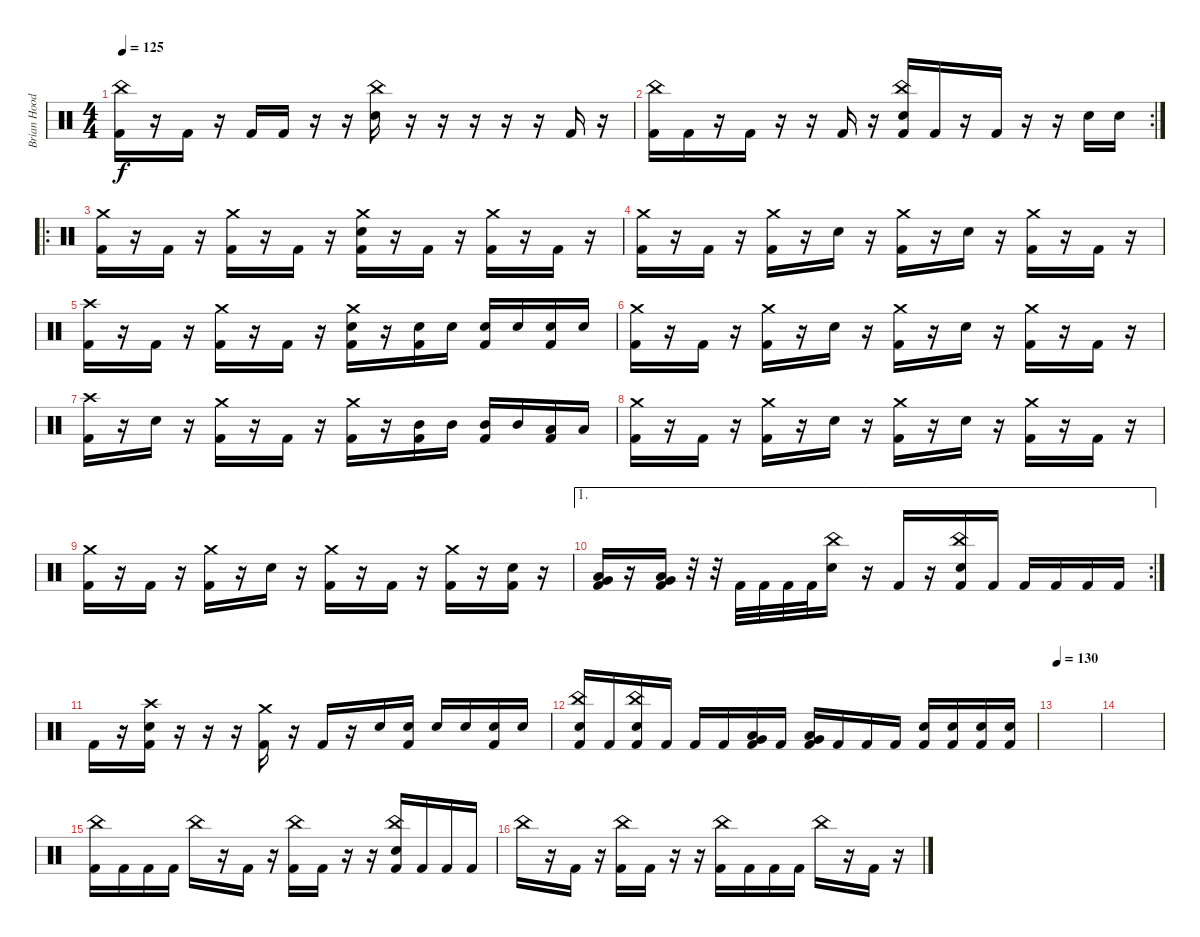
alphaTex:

\track ("Brian Hood " "Brian Hood") {instrument percussion}
\staff {score}
\articulation defaults
\ts (4 4)
\tempo 125
\clef neutral
\ks c
("Kick (hit) 2" "China (hit)").16{dy f} r.16 "Kick (hit) 2".16 r.16 "Kick (hit) 2".16 "Kick (hit) 2".16 r.16 r.16 ("Electric Snare (hit)" "China (hit)").16 r.16 r.16 r.16 r.16 r.16 "Kick (hit) 2".16 r.16 |
\rc 2
("Kick (hit) 2" "China (hit)").16 "Kick (hit) 2".16 r.16 "Kick (hit) 2".16 r.16 r.16 "Kick (hit) 2".16 r.16 ("Kick (hit) 2" "Electric Snare (hit)" "China (hit)").16 "Kick (hit) 2".16 r.16 "Kick (hit) 2".16 r.16 r.16 "Electric Snare (hit)".16 "Electric Snare (hit)".16 |
\ro
("Kick (hit) 2" "Crash medium (hit)").16 r.16 "Kick (hit) 2".16 r.16 ("Kick (hit) 2" "Crash medium (hit)").16 r.16 "Kick (hit) 2".16 r.16 ("Kick (hit) 2" "Electric Snare (hit)" "Crash medium (hit)").16 r.16 "Kick (hit) 2".16 r.16 ("Kick (hit) 2" "Crash medium (hit)").16 r.16 "Kick (hit) 2".16 r.16 |
("Kick (hit) 2" "Crash medium (hit)").16 r.16 "Kick (hit) 2".16 r.16 ("Kick (hit) 2" "Crash medium (hit)").16 r.16 "Electric Snare (hit)".16 r.16 ("Kick (hit) 2" "Crash medium (hit)").16 r.16 "Electric Snare (hit)".16 r.16 ("Kick (hit) 2" "Crash medium (hit)").16 r.16 "Kick (hit) 2".16 r.16 |
("Kick (hit) 2" "Crash high (hit)").16 r.16 "Kick (hit) 2".16 r.16 ("Kick (hit) 2" "Crash medium (hit)").16 r.16 "Kick (hit) 2".16 r.16 ("Kick (hit) 2" "Electric Snare (hit)" "Crash medium (hit)").16 r.16 ("Kick (hit) 2" "Electric Snare (hit)").16 "Electric Snare (hit)".16 ("Kick (hit) 2" "Electric Snare (hit)").16 "Electric Snare (hit)".16 ("Kick (hit) 2" "Electric Snare (hit)").16 "Electric Snare (hit)".16 |
("Kick (hit) 2" "Crash medium (hit)").16 r.16 "Kick (hit) 2".16 r.16 ("Kick (hit) 2" "Crash medium (hit)").16 r.16 "Electric Snare (hit)".16 r.16 ("Kick (hit) 2" "Crash medium (hit)").16 r.16 "Electric Snare (hit)".16 r.16 ("Kick (hit) 2" "Crash medium (hit)").16 r.16 "Kick (hit) 2".16 r.16 |
("Kick (hit) 2" "Crash high (hit)").16 r.16 "Electric Snare (hit)".16 r.16 ("Kick (hit) 2" "Crash medium (hit)").16 r.16 "Kick (hit) 2".16 r.16 ("Kick (hit) 2" "Crash medium (hit)").16 r.16 ("Kick (hit) 2" "Mid Tom (hit)").16 "Mid Tom (hit)".16 ("Kick (hit) 2" "Mid Tom (hit)").16 "Mid Tom (hit)".16 ("Kick (hit) 2" "Low Tom (hit)").16 "Low Tom (hit)".16 |
("Kick (hit) 2" "Crash medium (hit)").16 r.16 "Kick (hit) 2".16 r.16 ("Kick (hit) 2" "Crash medium (hit)").16 r.16 "Electric Snare (hit)".16 r.16 ("Kick (hit) 2" "Crash medium (hit)").16 r.16 "Electric Snare (hit)".16 r.16 ("Kick (hit) 2" "Crash medium (hit)").16 r.16 "Kick (hit) 2".16 r.16 |
("Kick (hit) 2" "Crash medium (hit)").16 r.16 "Kick (hit) 2".16 r.16 ("Kick (hit) 2" "Crash medium (hit)").16 r.16 "Electric Snare (hit)".16 r.16 ("Kick (hit) 2" "Crash medium (hit)").16 r.16 "Kick (hit) 2".16 r.16 ("Kick (hit) 2" "Crash medium (hit)").16 r.16 ("Kick (hit) 2" "Electric Snare (hit)").16 r.16 |
\ae 1
\rc 2
("Kick (hit) 2" "Low Tom (hit)" "Very Low Tom (hit)").16 r.16 ("Kick (hit) 2" "Low Tom (hit)" "Very Low Tom (hit)").16 r.32 r.32 "Kick (hit) 2".32 "Kick (hit) 2".32 "Kick (hit) 2".32 "Kick (hit) 2".32 ("Electric Snare (hit)" "China (hit)").16 r.16 "Kick (hit) 2".16 r.16 ("Kick (hit) 2" "Electric Snare (hit)" "China (hit)").16 "Kick (hit) 2".16 "Kick (hit) 2".16 "Kick (hit) 2".16 "Kick (hit) 2".16 "Kick (hit) 2".16 |
"Kick (hit) 2".16 r.16 ("Kick (hit) 2" "Electric Snare (hit)" "Crash high (hit)").16 r.16 r.16 r.16 ("Kick (hit) 2" "Crash medium (hit)").16 r.16 "Kick (hit) 2".16 r.16 "Electric Snare (hit)".16 ("Kick (hit) 2" "Electric Snare (hit)").16 "Electric Snare (hit)".16 "Electric Snare (hit)".16 ("Kick (hit) 2" "Electric Snare (hit)").16 "Electric Snare (hit)".16 |
("Kick (hit) 2" "Electric Snare (hit)" "China (hit)").16 "Kick (hit) 2".16 ("Kick (hit) 2" "Electric Snare (hit)" "China (hit)").16 "Kick (hit) 2".16 "Kick (hit) 2".16 "Kick (hit) 2".16 ("Kick (hit) 2" "Low Tom (hit)" "Very Low Tom (hit)").16 "Kick (hit) 2".16 ("Kick (hit) 2" "Low Tom (hit)" "Very Low Tom (hit)").16 "Kick (hit) 2".16 "Kick (hit) 2".16 "Kick (hit) 2".16 ("Kick (hit) 2" "Electric Snare (hit)").16 ("Kick (hit) 2" "Electric Snare (hit)").16 ("Kick (hit) 2" "Electric Snare (hit)").16 ("Kick (hit) 2" "Electric Snare (hit)").16 |
\tempo 130
|
|
("Kick (hit) 2" "China (hit)").16 "Kick (hit) 2".16 "Kick (hit) 2".16 "Kick (hit) 2".16 "China (hit)".16 r.16 "Kick (hit) 2".16 r.16 ("Kick (hit) 2" "China (hit)").16 "Kick (hit) 2".16 r.16 r.16 ("Kick (hit) 2" "Electric Snare (hit)" "China (hit)").16 "Kick (hit) 2".16 "Kick (hit) 2".16 "Kick (hit) 2".16 |
"China (hit)".16 r.16 "Kick (hit) 2".16 r.16 ("Kick (hit) 2" "China (hit)").16 "Kick (hit) 2".16 r.16 r.16 ("Kick (hit) 2" "China (hit)").16 "Kick (hit) 2".16 "Kick (hit) 2".16 "Kick (hit) 2".16 "China (hit)".16 r.16 "Kick (hit) 2".16 r.16
